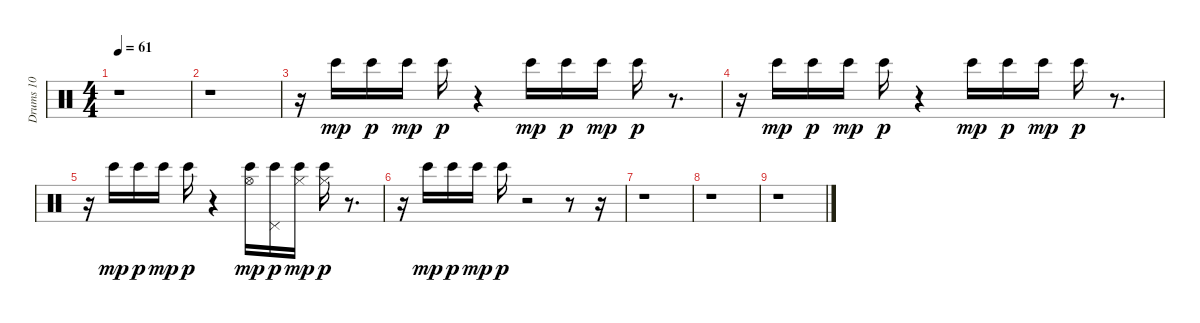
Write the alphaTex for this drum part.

\track ("Drums 10" "Drums 10") {instrument percussion}
\staff {score}
\articulation defaults
\ts (4 4)
\tempo 61
\clef neutral
\ks c
r.1{dy fff} |
r.1 |
r.16 "Bongo High (hit)".16{dy mp} "Bongo High (hit)".16{dy p} "Bongo High (hit)".16{dy mp} "Bongo High (hit)".16{dy p} r.4 "Bongo High (hit)".16{dy mp} "Bongo High (hit)".16{dy p} "Bongo High (hit)".16{dy mp} "Bongo High (hit)".16{dy p} r.8{d} |
r.16 "Bongo High (hit)".16{dy mp} "Bongo High (hit)".16{dy p} "Bongo High (hit)".16{dy mp} "Bongo High (hit)".16{dy p} r.4 "Bongo High (hit)".16{dy mp} "Bongo High (hit)".16{dy p} "Bongo High (hit)".16{dy mp} "Bongo High (hit)".16{dy p} r.8{d} |
r.16 "Bongo High (hit)".16{dy mp} "Bongo High (hit)".16{dy p} "Bongo High (hit)".16{dy mp} "Bongo High (hit)".16{dy p} r.4 ("Hi-Hat (open)" "Bongo High (hit)").16{dy mp} ("Pedal Hi-Hat (hit)" "Bongo High (hit)").16{dy p} ("Hi-Hat (closed)" "Bongo High (hit)").16{dy mp} ("Hi-Hat (closed)" "Bongo High (hit)").16{dy p} r.8{d} |
r.16 "Bongo High (hit)".16{dy mp} "Bongo High (hit)".16{dy p} "Bongo High (hit)".16{dy mp} "Bongo High (hit)".16{dy p} r.2 r.8 r.16 |
r.1 |
r.1 |
r.1
